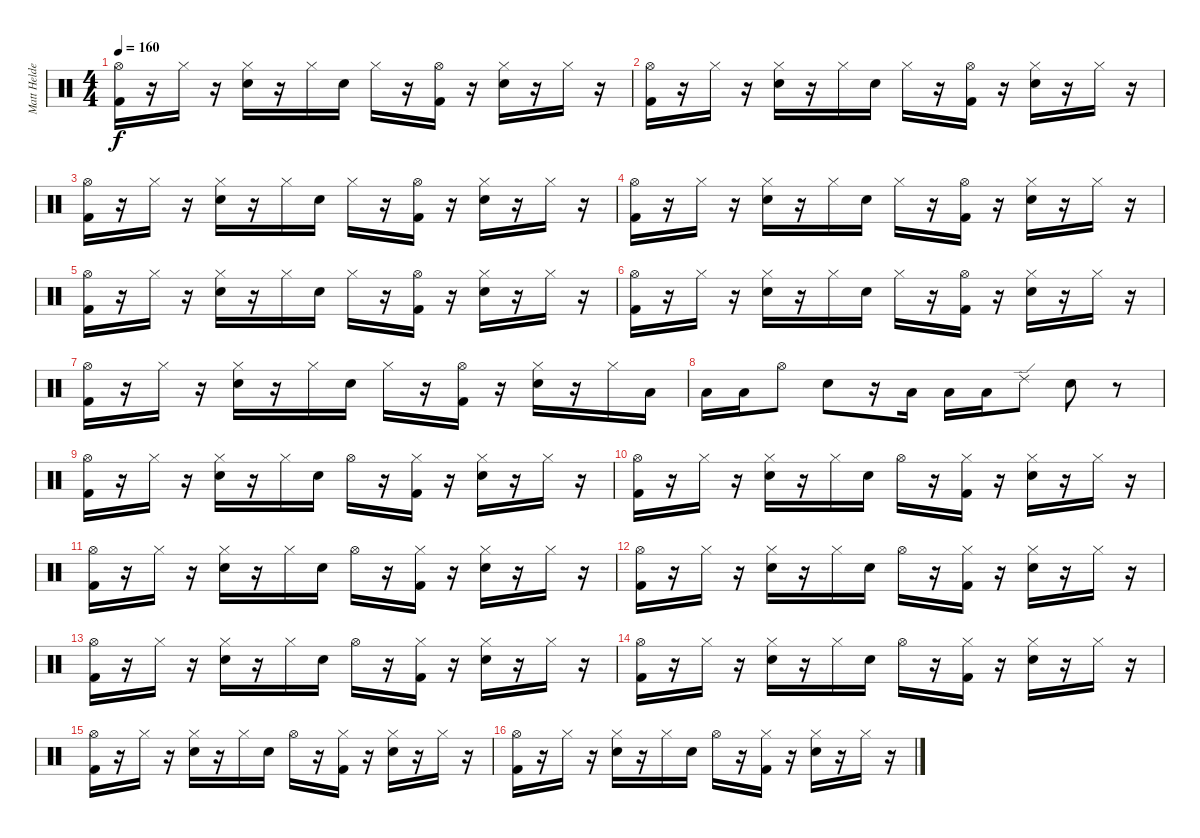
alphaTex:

\track ("Matt Helders" "Matt Helde") {instrument percussion}
\staff {score}
\articulation defaults
\ts (4 4)
\tempo 160
\clef neutral
\ks c
("Hi-Hat (open)" "Kick (hit) 2").16{dy f} r.16 "Hi-Hat (closed)".16 r.16 ("Hi-Hat (closed)" "Snare (hit) 2").16 r.16 "Hi-Hat (closed)".16 "Snare (hit) 2".16 "Hi-Hat (closed)".16 r.16 ("Hi-Hat (open)" "Kick (hit) 2").16 r.16 ("Hi-Hat (closed)" "Snare (hit) 2").16 r.16 "Hi-Hat (closed)".16 r.16 |
("Hi-Hat (open)" "Kick (hit) 2").16 r.16 "Hi-Hat (closed)".16 r.16 ("Hi-Hat (closed)" "Snare (hit) 2").16 r.16 "Hi-Hat (closed)".16 "Snare (hit) 2".16 "Hi-Hat (closed)".16 r.16 ("Hi-Hat (open)" "Kick (hit) 2").16 r.16 ("Hi-Hat (closed)" "Snare (hit) 2").16 r.16 "Hi-Hat (closed)".16 r.16 |
("Hi-Hat (open)" "Kick (hit) 2").16 r.16 "Hi-Hat (closed)".16 r.16 ("Hi-Hat (closed)" "Snare (hit) 2").16 r.16 "Hi-Hat (closed)".16 "Snare (hit) 2".16 "Hi-Hat (closed)".16 r.16 ("Hi-Hat (open)" "Kick (hit) 2").16 r.16 ("Hi-Hat (closed)" "Snare (hit) 2").16 r.16 "Hi-Hat (closed)".16 r.16 |
("Hi-Hat (open)" "Kick (hit) 2").16 r.16 "Hi-Hat (closed)".16 r.16 ("Hi-Hat (closed)" "Snare (hit) 2").16 r.16 "Hi-Hat (closed)".16 "Snare (hit) 2".16 "Hi-Hat (closed)".16 r.16 ("Hi-Hat (open)" "Kick (hit) 2").16 r.16 ("Hi-Hat (closed)" "Snare (hit) 2").16 r.16 "Hi-Hat (closed)".16 r.16 |
("Hi-Hat (open)" "Kick (hit) 2").16 r.16 "Hi-Hat (closed)".16 r.16 ("Hi-Hat (closed)" "Snare (hit) 2").16 r.16 "Hi-Hat (closed)".16 "Snare (hit) 2".16 "Hi-Hat (closed)".16 r.16 ("Hi-Hat (open)" "Kick (hit) 2").16 r.16 ("Hi-Hat (closed)" "Snare (hit) 2").16 r.16 "Hi-Hat (closed)".16 r.16 |
("Hi-Hat (open)" "Kick (hit) 2").16 r.16 "Hi-Hat (closed)".16 r.16 ("Hi-Hat (closed)" "Snare (hit) 2").16 r.16 "Hi-Hat (closed)".16 "Snare (hit) 2".16 "Hi-Hat (closed)".16 r.16 ("Hi-Hat (open)" "Kick (hit) 2").16 r.16 ("Hi-Hat (closed)" "Snare (hit) 2").16 r.16 "Hi-Hat (closed)".16 r.16 |
("Hi-Hat (open)" "Kick (hit) 2").16 r.16 "Hi-Hat (closed)".16 r.16 ("Hi-Hat (closed)" "Snare (hit) 2").16 r.16 "Hi-Hat (closed)".16 "Snare (hit) 2".16 "Hi-Hat (closed)".16 r.16 ("Hi-Hat (open)" "Kick (hit) 2").16 r.16 ("Hi-Hat (closed)" "Snare (hit) 2").16 r.16 "Hi-Hat (closed)".16 "Low Tom (hit)".16 |
"Low Tom (hit)".16 "Low Tom (hit)".16 "Hi-Hat (open)".8 "Snare (hit) 2".8 r.16 "Low Tom (hit)".16 "Low Tom (hit)".16 "Low Tom (hit)".16 "Ride (edge) 2".8 "Snare (hit) 2".8 r.8 |
("Hi-Hat (open)" "Kick (hit) 2").16 r.16 "Hi-Hat (closed)".16 r.16 ("Hi-Hat (closed)" "Snare (hit) 2").16 r.16 "Hi-Hat (closed)".16 "Snare (hit) 2".16 "Hi-Hat (open)".16 r.16 ("Hi-Hat (closed)" "Kick (hit) 2").16 r.16 ("Hi-Hat (closed)" "Snare (hit) 2").16 r.16 "Hi-Hat (closed)".16 r.16 |
("Hi-Hat (open)" "Kick (hit) 2").16 r.16 "Hi-Hat (closed)".16 r.16 ("Hi-Hat (closed)" "Snare (hit) 2").16 r.16 "Hi-Hat (closed)".16 "Snare (hit) 2".16 "Hi-Hat (open)".16 r.16 ("Hi-Hat (closed)" "Kick (hit) 2").16 r.16 ("Hi-Hat (closed)" "Snare (hit) 2").16 r.16 "Hi-Hat (closed)".16 r.16 |
("Hi-Hat (open)" "Kick (hit) 2").16 r.16 "Hi-Hat (closed)".16 r.16 ("Hi-Hat (closed)" "Snare (hit) 2").16 r.16 "Hi-Hat (closed)".16 "Snare (hit) 2".16 "Hi-Hat (open)".16 r.16 ("Hi-Hat (closed)" "Kick (hit) 2").16 r.16 ("Hi-Hat (closed)" "Snare (hit) 2").16 r.16 "Hi-Hat (closed)".16 r.16 |
("Hi-Hat (open)" "Kick (hit) 2").16 r.16 "Hi-Hat (closed)".16 r.16 ("Hi-Hat (closed)" "Snare (hit) 2").16 r.16 "Hi-Hat (closed)".16 "Snare (hit) 2".16 "Hi-Hat (open)".16 r.16 ("Hi-Hat (closed)" "Kick (hit) 2").16 r.16 ("Hi-Hat (closed)" "Snare (hit) 2").16 r.16 "Hi-Hat (closed)".16 r.16 |
("Hi-Hat (open)" "Kick (hit) 2").16 r.16 "Hi-Hat (closed)".16 r.16 ("Hi-Hat (closed)" "Snare (hit) 2").16 r.16 "Hi-Hat (closed)".16 "Snare (hit) 2".16 "Hi-Hat (open)".16 r.16 ("Hi-Hat (closed)" "Kick (hit) 2").16 r.16 ("Hi-Hat (closed)" "Snare (hit) 2").16 r.16 "Hi-Hat (closed)".16 r.16 |
("Hi-Hat (open)" "Kick (hit) 2").16 r.16 "Hi-Hat (closed)".16 r.16 ("Hi-Hat (closed)" "Snare (hit) 2").16 r.16 "Hi-Hat (closed)".16 "Snare (hit) 2".16 "Hi-Hat (open)".16 r.16 ("Hi-Hat (closed)" "Kick (hit) 2").16 r.16 ("Hi-Hat (closed)" "Snare (hit) 2").16 r.16 "Hi-Hat (closed)".16 r.16 |
("Hi-Hat (open)" "Kick (hit) 2").16 r.16 "Hi-Hat (closed)".16 r.16 ("Hi-Hat (closed)" "Snare (hit) 2").16 r.16 "Hi-Hat (closed)".16 "Snare (hit) 2".16 "Hi-Hat (open)".16 r.16 ("Hi-Hat (closed)" "Kick (hit) 2").16 r.16 ("Hi-Hat (closed)" "Snare (hit) 2").16 r.16 "Hi-Hat (closed)".16 r.16 |
("Hi-Hat (open)" "Kick (hit) 2").16 r.16 "Hi-Hat (closed)".16 r.16 ("Hi-Hat (closed)" "Snare (hit) 2").16 r.16 "Hi-Hat (closed)".16 "Snare (hit) 2".16 "Hi-Hat (open)".16 r.16 ("Hi-Hat (closed)" "Kick (hit) 2").16 r.16 ("Hi-Hat (closed)" "Snare (hit) 2").16 r.16 "Hi-Hat (closed)".16 r.16
